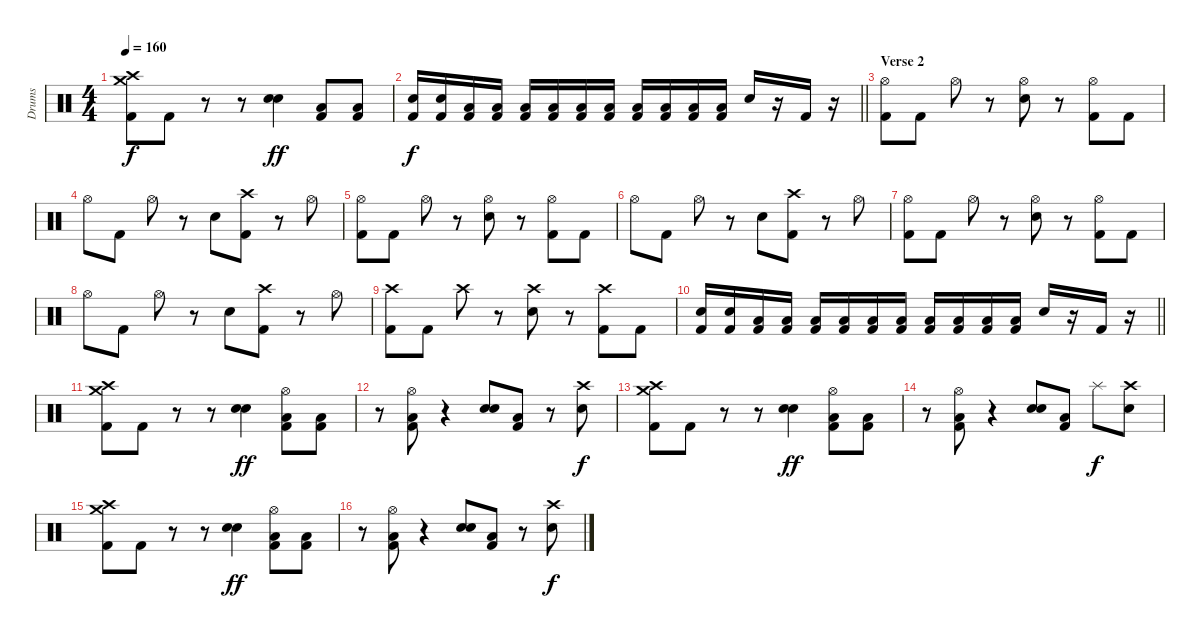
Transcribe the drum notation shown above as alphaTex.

\track ("Drums" "Drums") {instrument percussion}
\staff {score}
\articulation defaults
\ts (4 4)
\tempo 160
\clef neutral
\ks c
("Crash high (hit)" "Crash medium (hit)" "Kick (hit) 2").8{dy f} "Kick (hit) 2".8 r.8 r.8 ("Electric Snare (hit)" "Snare (hit) 2").4{dy ff} ("Low Floor Tom (hit)" "Kick (hit) 2").8 ("Low Floor Tom (hit)" "Kick (hit) 2").8 |
\barLineRight lightlight
("Electric Snare (hit)" "Kick (hit) 2").16{dy f} ("Electric Snare (hit)" "Kick (hit) 2").16 ("Low Floor Tom (hit)" "Kick (hit) 2").16 ("Low Floor Tom (hit)" "Kick (hit) 2").16 ("Low Floor Tom (hit)" "Kick (hit) 2").16 ("Low Floor Tom (hit)" "Kick (hit) 2").16 ("Low Tom (hit)" "Kick (hit) 2").16 ("Low Tom (hit)" "Kick (hit) 2").16 ("Low Floor Tom (hit)" "Kick (hit) 2").16 ("Low Floor Tom (hit)" "Kick (hit) 2").16 ("Low Floor Tom (hit)" "Kick (hit) 2").16 ("Low Floor Tom (hit)" "Kick (hit) 2").16 "Electric Snare (hit)".16 r.16 "Kick (hit) 2".16 r.16 |
\section ("" "Verse 2")
("Hi-Hat (open)" "Kick (hit) 2").8 "Kick (hit) 2".8 "Hi-Hat (open)".8 r.8 ("Hi-Hat (open)" "Electric Snare (hit)").8 r.8 ("Hi-Hat (open)" "Kick (hit) 2").8 "Kick (hit) 2".8 |
"Hi-Hat (open)".8 "Kick (hit) 2".8 "Hi-Hat (open)".8 r.8 "Electric Snare (hit)".8 ("Crash high (hit)" "Kick (hit) 2").8 r.8 "Hi-Hat (open)".8 |
("Hi-Hat (open)" "Kick (hit) 2").8 "Kick (hit) 2".8 "Hi-Hat (open)".8 r.8 ("Hi-Hat (open)" "Electric Snare (hit)").8 r.8 ("Hi-Hat (open)" "Kick (hit) 2").8 "Kick (hit) 2".8 |
"Hi-Hat (open)".8 "Kick (hit) 2".8 "Hi-Hat (open)".8 r.8 "Electric Snare (hit)".8 ("Crash high (hit)" "Kick (hit) 2").8 r.8 "Hi-Hat (open)".8 |
("Hi-Hat (open)" "Kick (hit) 2").8 "Kick (hit) 2".8 "Hi-Hat (open)".8 r.8 ("Hi-Hat (open)" "Electric Snare (hit)").8 r.8 ("Hi-Hat (open)" "Kick (hit) 2").8 "Kick (hit) 2".8 |
"Hi-Hat (open)".8 "Kick (hit) 2".8 "Hi-Hat (open)".8 r.8 "Electric Snare (hit)".8 ("Crash high (hit)" "Kick (hit) 2").8 r.8 "Hi-Hat (open)".8 |
("Crash high (hit)" "Kick (hit) 2").8 "Kick (hit) 2".8 "Crash high (hit)".8 r.8 ("Crash high (hit)" "Electric Snare (hit)").8 r.8 ("Crash high (hit)" "Kick (hit) 2").8 "Kick (hit) 2".8 |
\barLineRight lightlight
("Electric Snare (hit)" "Kick (hit) 2").16 ("Electric Snare (hit)" "Kick (hit) 2").16 ("Low Floor Tom (hit)" "Kick (hit) 2").16 ("Low Floor Tom (hit)" "Kick (hit) 2").16 ("Low Floor Tom (hit)" "Kick (hit) 2").16 ("Low Floor Tom (hit)" "Kick (hit) 2").16 ("Low Tom (hit)" "Kick (hit) 2").16 ("Low Tom (hit)" "Kick (hit) 2").16 ("Low Floor Tom (hit)" "Kick (hit) 2").16 ("Low Floor Tom (hit)" "Kick (hit) 2").16 ("Low Floor Tom (hit)" "Kick (hit) 2").16 ("Low Floor Tom (hit)" "Kick (hit) 2").16 "Electric Snare (hit)".16 r.16 "Kick (hit) 2".16 r.16 |
\section ("" "")
("Crash high (hit)" "Crash medium (hit)" "Kick (hit) 2").8 "Kick (hit) 2".8 r.8 r.8 ("Electric Snare (hit)" "Snare (hit) 2").4{dy ff} ("Hi-Hat (open)" "Low Floor Tom (hit)" "Kick (hit) 2").8 ("Low Floor Tom (hit)" "Kick (hit) 2").8 |
r.8 ("Hi-Hat (open)" "Low Floor Tom (hit)" "Kick (hit) 2").8 r.4 ("Electric Snare (hit)" "Snare (hit) 2").8 ("Low Floor Tom (hit)" "Kick (hit) 2").8 r.8 ("Crash high (hit)" "Snare (hit) 2").8{dy f} |
("Crash high (hit)" "Crash medium (hit)" "Kick (hit) 2").8 "Kick (hit) 2".8 r.8 r.8 ("Electric Snare (hit)" "Snare (hit) 2").4{dy ff} ("Hi-Hat (open)" "Low Floor Tom (hit)" "Kick (hit) 2").8 ("Low Floor Tom (hit)" "Kick (hit) 2").8 |
r.8 ("Hi-Hat (open)" "Low Floor Tom (hit)" "Kick (hit) 2").8 r.4 ("Electric Snare (hit)" "Snare (hit) 2").8 ("Low Floor Tom (hit)" "Kick (hit) 2").8 "Splash (hit)".8{dy f} ("Crash high (hit)" "Snare (hit) 2").8 |
("Crash high (hit)" "Crash medium (hit)" "Kick (hit) 2").8 "Kick (hit) 2".8 r.8 r.8 ("Electric Snare (hit)" "Snare (hit) 2").4{dy ff} ("Hi-Hat (open)" "Low Floor Tom (hit)" "Kick (hit) 2").8 ("Low Floor Tom (hit)" "Kick (hit) 2").8 |
r.8 ("Hi-Hat (open)" "Low Floor Tom (hit)" "Kick (hit) 2").8 r.4 ("Electric Snare (hit)" "Snare (hit) 2").8 ("Low Floor Tom (hit)" "Kick (hit) 2").8 r.8 ("Crash high (hit)" "Snare (hit) 2").8{dy f}
